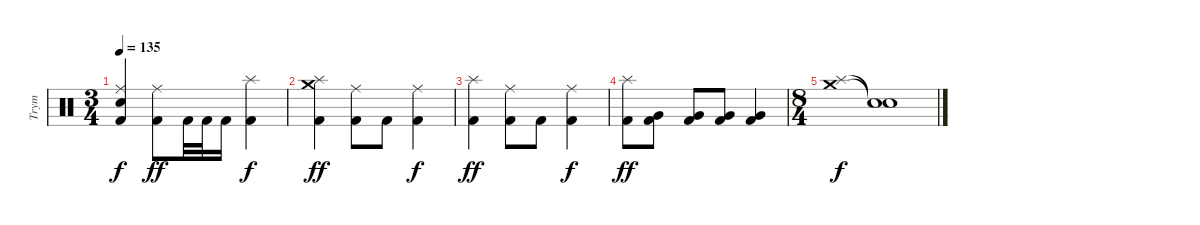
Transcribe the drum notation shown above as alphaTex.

\track ("Trym" "Trym") {instrument percussion}
\staff {score}
\articulation defaults
\ts (3 4)
\tempo 135
\clef neutral
\ks c
("Snare (hit) 2" "Ride (middle)" "Kick (hit) 2").4{dy f} ("Ride (middle)" "Kick (hit) 2").8{dy ff} "Kick (hit) 2".32 "Kick (hit) 2".32 "Kick (hit) 2".16 ("Splash (hit)" "Kick (hit) 2").4{dy f} |
("Crash medium (hit)" "Splash (hit)" "Kick (hit) 2").4{dy ff} ("Ride (middle)" "Kick (hit) 2").8 "Kick (hit) 2".8 ("Ride (middle)" "Kick (hit) 2").4{dy f} |
("Splash (hit)" "Kick (hit) 2").4{dy ff} ("Ride (middle)" "Kick (hit) 2").8 "Kick (hit) 2".8 ("Ride (middle)" "Kick (hit) 2").4{dy f} |
("Splash (hit)" "Kick (hit) 2").8{dy ff} ("Very Low Tom (hit)" "Kick (hit) 2").8 ("Very Low Tom (hit)" "Kick (hit) 2").8 ("Very Low Tom (hit)" "Kick (hit) 2").8 ("Very Low Tom (hit)" "Kick (hit) 2").4 |
\ts (8 4)
("Crash medium (hit)" "Splash (hit)").1{dy f} ("Snare (hit)"{t} "Snare (hit)"{t}).1
